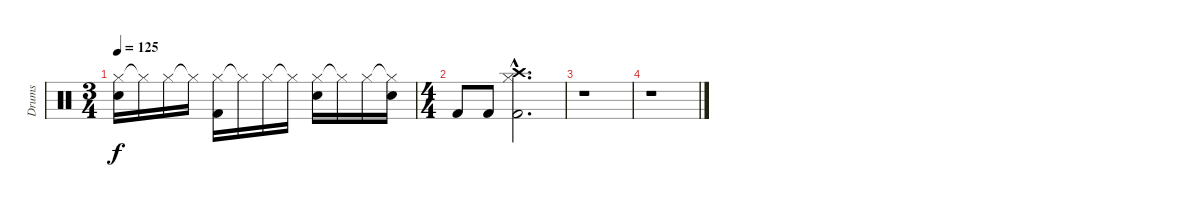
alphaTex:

\track ("Drums" "Drums") {instrument percussion}
\staff {score}
\articulation defaults
\ts (3 4)
\tempo 125
\clef neutral
\ks c
("Hi-Hat (closed)" "Snare (hit) 2").16{dy f} "Hi-Hat (closed)"{t}.16 "Hi-Hat (closed)".16 "Hi-Hat (closed)"{t}.16 ("Hi-Hat (closed)" "Kick (hit) 2").16 "Hi-Hat (closed)"{t}.16 "Hi-Hat (closed)".16 "Hi-Hat (closed)"{t}.16 ("Hi-Hat (closed)" "Snare (hit) 2").16 "Hi-Hat (closed)"{t}.16 "Hi-Hat (closed)".16 ("Hi-Hat (closed)"{t} "Snare (hit) 2").16 |
\ts (4 4)
"Kick (hit) 2".8 "Kick (hit) 2".8 ("Hi-Hat (closed)"{hac} "Kick (hit) 2"{hac} "Crash high (hit)"{hac}).2{d} |
r.1 |
r.1
